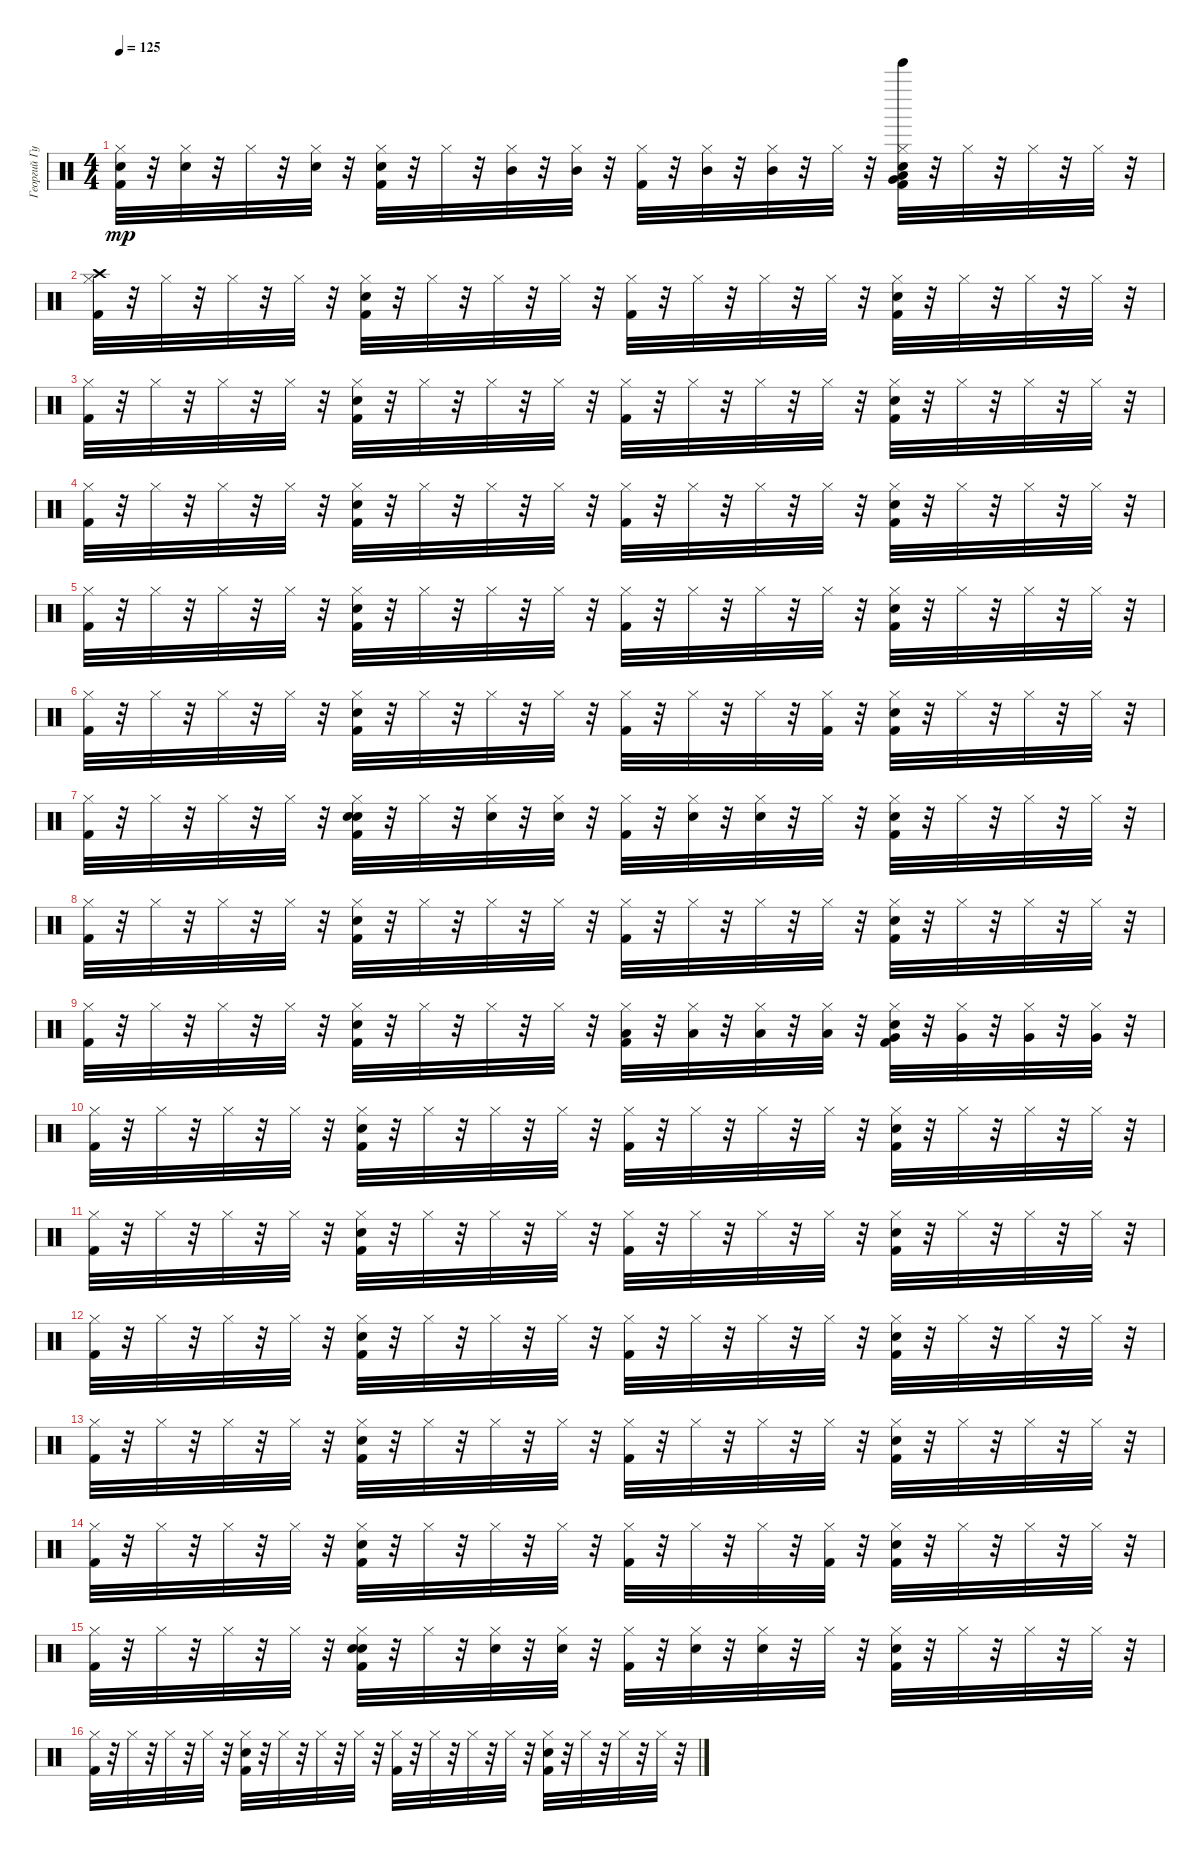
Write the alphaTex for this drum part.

\track ("Георгий Гурьянов" "Георгий Гу") {instrument percussion}
\staff {score}
\articulation defaults
\ts (4 4)
\tempo 125
\clef neutral
\ks c
("Hand Clap (hit)" "Kick (hit) 2" "Hi-Hat (closed)").32{dy mp} r.32 ("Hand Clap (hit)" "Hi-Hat (closed)").32 r.32 "Hi-Hat (closed)".32 r.32 ("Hand Clap (hit)" "Hi-Hat (closed)").32 r.32 ("Kick (hit) 2" "Snare (hit) 2" "Hi-Hat (closed)").32 r.32 "Hi-Hat (closed)".32 r.32 ("Mid Tom (hit)" "Hi-Hat (closed)").32 r.32 ("Mid Tom (hit)" "Hi-Hat (closed)").32 r.32 ("Kick (hit) 2" "Hi-Hat (closed)").32 r.32 ("Mid Tom (hit)" "Hi-Hat (closed)").32 r.32 ("Hi-Hat (closed)" "Mid Tom (hit)").32 r.32 "Hi-Hat (closed)".32 r.32 ("Low Tom (hit)" "Kick (hit) 2" "Snare (hit) 2" "Hi-Hat (closed)" "Very Low Tom (hit)" "Tinkle Bell (hit)").32 r.32 "Hi-Hat (closed)".32 r.32 "Hi-Hat (closed)".32 r.32 "Hi-Hat (closed)".32 r.32 |
("Crash high (hit)" "Kick (hit) 2" "Hi-Hat (closed)").32 r.32 "Hi-Hat (closed)".32 r.32 "Hi-Hat (closed)".32 r.32 "Hi-Hat (closed)".32 r.32 ("Kick (hit) 2" "Snare (hit) 2" "Hi-Hat (closed)").32 r.32 "Hi-Hat (closed)".32 r.32 "Hi-Hat (closed)".32 r.32 "Hi-Hat (closed)".32 r.32 ("Kick (hit) 2" "Hi-Hat (closed)").32 r.32 "Hi-Hat (closed)".32 r.32 "Hi-Hat (closed)".32 r.32 "Hi-Hat (closed)".32 r.32 ("Kick (hit) 2" "Snare (hit) 2" "Hi-Hat (closed)").32 r.32 "Hi-Hat (closed)".32 r.32 "Hi-Hat (closed)".32 r.32 "Hi-Hat (closed)".32 r.32 |
("Kick (hit) 2" "Hi-Hat (closed)").32 r.32 "Hi-Hat (closed)".32 r.32 "Hi-Hat (closed)".32 r.32 "Hi-Hat (closed)".32 r.32 ("Kick (hit) 2" "Snare (hit) 2" "Hi-Hat (closed)").32 r.32 "Hi-Hat (closed)".32 r.32 "Hi-Hat (closed)".32 r.32 "Hi-Hat (closed)".32 r.32 ("Kick (hit) 2" "Hi-Hat (closed)").32 r.32 "Hi-Hat (closed)".32 r.32 "Hi-Hat (closed)".32 r.32 "Hi-Hat (closed)".32 r.32 ("Kick (hit) 2" "Snare (hit) 2" "Hi-Hat (closed)").32 r.32 "Hi-Hat (closed)".32 r.32 "Hi-Hat (closed)".32 r.32 "Hi-Hat (closed)".32 r.32 |
("Kick (hit) 2" "Hi-Hat (closed)").32 r.32 "Hi-Hat (closed)".32 r.32 "Hi-Hat (closed)".32 r.32 "Hi-Hat (closed)".32 r.32 ("Kick (hit) 2" "Snare (hit) 2" "Hi-Hat (closed)").32 r.32 "Hi-Hat (closed)".32 r.32 "Hi-Hat (closed)".32 r.32 "Hi-Hat (closed)".32 r.32 ("Kick (hit) 2" "Hi-Hat (closed)").32 r.32 "Hi-Hat (closed)".32 r.32 "Hi-Hat (closed)".32 r.32 "Hi-Hat (closed)".32 r.32 ("Kick (hit) 2" "Snare (hit) 2" "Hi-Hat (closed)").32 r.32 "Hi-Hat (closed)".32 r.32 "Hi-Hat (closed)".32 r.32 "Hi-Hat (closed)".32 r.32 |
("Kick (hit) 2" "Hi-Hat (closed)").32 r.32 "Hi-Hat (closed)".32 r.32 "Hi-Hat (closed)".32 r.32 "Hi-Hat (closed)".32 r.32 ("Kick (hit) 2" "Snare (hit) 2" "Hi-Hat (closed)").32 r.32 "Hi-Hat (closed)".32 r.32 "Hi-Hat (closed)".32 r.32 "Hi-Hat (closed)".32 r.32 ("Kick (hit) 2" "Hi-Hat (closed)").32 r.32 "Hi-Hat (closed)".32 r.32 "Hi-Hat (closed)".32 r.32 "Hi-Hat (closed)".32 r.32 ("Kick (hit) 2" "Snare (hit) 2" "Hi-Hat (closed)").32 r.32 "Hi-Hat (closed)".32 r.32 "Hi-Hat (closed)".32 r.32 "Hi-Hat (closed)".32 r.32 |
("Kick (hit) 2" "Hi-Hat (closed)").32 r.32 "Hi-Hat (closed)".32 r.32 "Hi-Hat (closed)".32 r.32 "Hi-Hat (closed)".32 r.32 ("Kick (hit) 2" "Snare (hit) 2" "Hi-Hat (closed)").32 r.32 "Hi-Hat (closed)".32 r.32 "Hi-Hat (closed)".32 r.32 "Hi-Hat (closed)".32 r.32 ("Kick (hit) 2" "Hi-Hat (closed)").32 r.32 "Hi-Hat (closed)".32 r.32 "Hi-Hat (closed)".32 r.32 ("Kick (hit) 2" "Hi-Hat (closed)").32 r.32 ("Kick (hit) 2" "Snare (hit) 2" "Hi-Hat (closed)").32 r.32 "Hi-Hat (closed)".32 r.32 "Hi-Hat (closed)".32 r.32 "Hi-Hat (closed)".32 r.32 |
("Kick (hit) 2" "Hi-Hat (closed)").32 r.32 "Hi-Hat (closed)".32 r.32 "Hi-Hat (closed)".32 r.32 "Hi-Hat (closed)".32 r.32 ("Hand Clap (hit)" "Kick (hit) 2" "Snare (hit) 2" "Hi-Hat (closed)").32 r.32 "Hi-Hat (closed)".32 r.32 ("Hand Clap (hit)" "Hi-Hat (closed)").32 r.32 ("Hand Clap (hit)" "Hi-Hat (closed)").32 r.32 ("Kick (hit) 2" "Hi-Hat (closed)").32 r.32 ("Hand Clap (hit)" "Hi-Hat (closed)").32 r.32 ("Hand Clap (hit)" "Hi-Hat (closed)").32 r.32 "Hi-Hat (closed)".32 r.32 ("Kick (hit) 2" "Snare (hit) 2" "Hi-Hat (closed)").32 r.32 "Hi-Hat (closed)".32 r.32 "Hi-Hat (closed)".32 r.32 "Hi-Hat (closed)".32 r.32 |
("Kick (hit) 2" "Hi-Hat (closed)").32 r.32 "Hi-Hat (closed)".32 r.32 "Hi-Hat (closed)".32 r.32 "Hi-Hat (closed)".32 r.32 ("Kick (hit) 2" "Snare (hit) 2" "Hi-Hat (closed)").32 r.32 "Hi-Hat (closed)".32 r.32 "Hi-Hat (closed)".32 r.32 "Hi-Hat (closed)".32 r.32 ("Kick (hit) 2" "Hi-Hat (closed)").32 r.32 "Hi-Hat (closed)".32 r.32 "Hi-Hat (closed)".32 r.32 "Hi-Hat (closed)".32 r.32 ("Kick (hit) 2" "Snare (hit) 2" "Hi-Hat (closed)").32 r.32 "Hi-Hat (closed)".32 r.32 "Hi-Hat (closed)".32 r.32 "Hi-Hat (closed)".32 r.32 |
("Kick (hit) 2" "Hi-Hat (closed)").32 r.32 "Hi-Hat (closed)".32 r.32 "Hi-Hat (closed)".32 r.32 "Hi-Hat (closed)".32 r.32 ("Kick (hit) 2" "Snare (hit) 2" "Hi-Hat (closed)").32 r.32 "Hi-Hat (closed)".32 r.32 "Hi-Hat (closed)".32 r.32 "Hi-Hat (closed)".32 r.32 ("Low Tom (hit)" "Kick (hit) 2" "Hi-Hat (closed)").32 r.32 ("Low Tom (hit)" "Hi-Hat (closed)").32 r.32 ("Low Tom (hit)" "Hi-Hat (closed)").32 r.32 ("Low Tom (hit)" "Hi-Hat (closed)").32 r.32 ("Very Low Tom (hit)" "Kick (hit) 2" "Snare (hit) 2" "Hi-Hat (closed)").32 r.32 ("Very Low Tom (hit)" "Hi-Hat (closed)").32 r.32 ("Very Low Tom (hit)" "Hi-Hat (closed)").32 r.32 ("Very Low Tom (hit)" "Hi-Hat (closed)").32 r.32 |
("Kick (hit) 2" "Hi-Hat (closed)").32 r.32 "Hi-Hat (closed)".32 r.32 "Hi-Hat (closed)".32 r.32 "Hi-Hat (closed)".32 r.32 ("Kick (hit) 2" "Snare (hit) 2" "Hi-Hat (closed)").32 r.32 "Hi-Hat (closed)".32 r.32 "Hi-Hat (closed)".32 r.32 "Hi-Hat (closed)".32 r.32 ("Kick (hit) 2" "Hi-Hat (closed)").32 r.32 "Hi-Hat (closed)".32 r.32 "Hi-Hat (closed)".32 r.32 "Hi-Hat (closed)".32 r.32 ("Kick (hit) 2" "Snare (hit) 2" "Hi-Hat (closed)").32 r.32 "Hi-Hat (closed)".32 r.32 "Hi-Hat (closed)".32 r.32 "Hi-Hat (closed)".32 r.32 |
("Kick (hit) 2" "Hi-Hat (closed)").32 r.32 "Hi-Hat (closed)".32 r.32 "Hi-Hat (closed)".32 r.32 "Hi-Hat (closed)".32 r.32 ("Kick (hit) 2" "Snare (hit) 2" "Hi-Hat (closed)").32 r.32 "Hi-Hat (closed)".32 r.32 "Hi-Hat (closed)".32 r.32 "Hi-Hat (closed)".32 r.32 ("Kick (hit) 2" "Hi-Hat (closed)").32 r.32 "Hi-Hat (closed)".32 r.32 "Hi-Hat (closed)".32 r.32 "Hi-Hat (closed)".32 r.32 ("Kick (hit) 2" "Snare (hit) 2" "Hi-Hat (closed)").32 r.32 "Hi-Hat (closed)".32 r.32 "Hi-Hat (closed)".32 r.32 "Hi-Hat (closed)".32 r.32 |
("Kick (hit) 2" "Hi-Hat (closed)").32 r.32 "Hi-Hat (closed)".32 r.32 "Hi-Hat (closed)".32 r.32 "Hi-Hat (closed)".32 r.32 ("Kick (hit) 2" "Snare (hit) 2" "Hi-Hat (closed)").32 r.32 "Hi-Hat (closed)".32 r.32 "Hi-Hat (closed)".32 r.32 "Hi-Hat (closed)".32 r.32 ("Kick (hit) 2" "Hi-Hat (closed)").32 r.32 "Hi-Hat (closed)".32 r.32 "Hi-Hat (closed)".32 r.32 "Hi-Hat (closed)".32 r.32 ("Kick (hit) 2" "Snare (hit) 2" "Hi-Hat (closed)").32 r.32 "Hi-Hat (closed)".32 r.32 "Hi-Hat (closed)".32 r.32 "Hi-Hat (closed)".32 r.32 |
("Kick (hit) 2" "Hi-Hat (closed)").32 r.32 "Hi-Hat (closed)".32 r.32 "Hi-Hat (closed)".32 r.32 "Hi-Hat (closed)".32 r.32 ("Kick (hit) 2" "Snare (hit) 2" "Hi-Hat (closed)").32 r.32 "Hi-Hat (closed)".32 r.32 "Hi-Hat (closed)".32 r.32 "Hi-Hat (closed)".32 r.32 ("Kick (hit) 2" "Hi-Hat (closed)").32 r.32 "Hi-Hat (closed)".32 r.32 "Hi-Hat (closed)".32 r.32 "Hi-Hat (closed)".32 r.32 ("Kick (hit) 2" "Snare (hit) 2" "Hi-Hat (closed)").32 r.32 "Hi-Hat (closed)".32 r.32 "Hi-Hat (closed)".32 r.32 "Hi-Hat (closed)".32 r.32 |
("Kick (hit) 2" "Hi-Hat (closed)").32 r.32 "Hi-Hat (closed)".32 r.32 "Hi-Hat (closed)".32 r.32 "Hi-Hat (closed)".32 r.32 ("Kick (hit) 2" "Snare (hit) 2" "Hi-Hat (closed)").32 r.32 "Hi-Hat (closed)".32 r.32 "Hi-Hat (closed)".32 r.32 "Hi-Hat (closed)".32 r.32 ("Kick (hit) 2" "Hi-Hat (closed)").32 r.32 "Hi-Hat (closed)".32 r.32 "Hi-Hat (closed)".32 r.32 ("Kick (hit) 2" "Hi-Hat (closed)").32 r.32 ("Kick (hit) 2" "Snare (hit) 2" "Hi-Hat (closed)").32 r.32 "Hi-Hat (closed)".32 r.32 "Hi-Hat (closed)".32 r.32 "Hi-Hat (closed)".32 r.32 |
("Kick (hit) 2" "Hi-Hat (closed)").32 r.32 "Hi-Hat (closed)".32 r.32 "Hi-Hat (closed)".32 r.32 "Hi-Hat (closed)".32 r.32 ("Hand Clap (hit)" "Kick (hit) 2" "Snare (hit) 2" "Hi-Hat (closed)").32 r.32 "Hi-Hat (closed)".32 r.32 ("Hand Clap (hit)" "Hi-Hat (closed)").32 r.32 ("Hand Clap (hit)" "Hi-Hat (closed)").32 r.32 ("Kick (hit) 2" "Hi-Hat (closed)").32 r.32 ("Hand Clap (hit)" "Hi-Hat (closed)").32 r.32 ("Hand Clap (hit)" "Hi-Hat (closed)").32 r.32 "Hi-Hat (closed)".32 r.32 ("Kick (hit) 2" "Snare (hit) 2" "Hi-Hat (closed)").32 r.32 "Hi-Hat (closed)".32 r.32 "Hi-Hat (closed)".32 r.32 "Hi-Hat (closed)".32 r.32 |
("Kick (hit) 2" "Hi-Hat (closed)").32 r.32 "Hi-Hat (closed)".32 r.32 "Hi-Hat (closed)".32 r.32 "Hi-Hat (closed)".32 r.32 ("Kick (hit) 2" "Snare (hit) 2" "Hi-Hat (closed)").32 r.32 "Hi-Hat (closed)".32 r.32 "Hi-Hat (closed)".32 r.32 "Hi-Hat (closed)".32 r.32 ("Kick (hit) 2" "Hi-Hat (closed)").32 r.32 "Hi-Hat (closed)".32 r.32 "Hi-Hat (closed)".32 r.32 "Hi-Hat (closed)".32 r.32 ("Kick (hit) 2" "Snare (hit) 2" "Hi-Hat (closed)").32 r.32 "Hi-Hat (closed)".32 r.32 "Hi-Hat (closed)".32 r.32 "Hi-Hat (closed)".32 r.32
